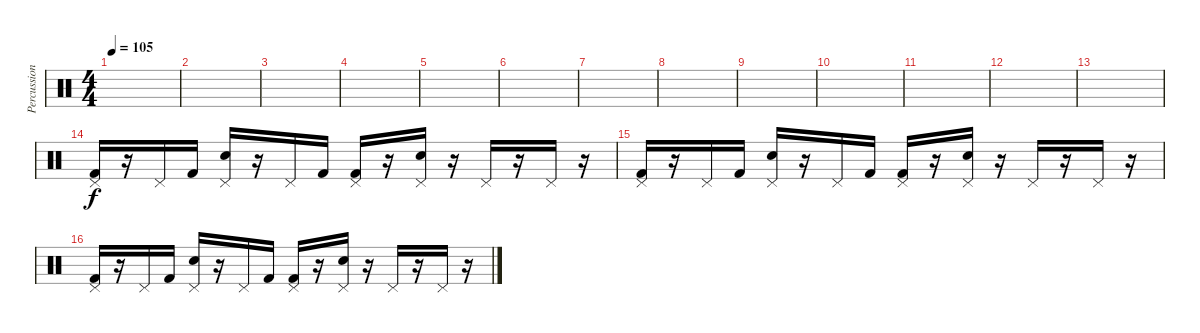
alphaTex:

\track ("Percussion" "Percussion") {instrument percussion}
\staff {score}
\articulation defaults
\ts (4 4)
\tempo 105
\clef neutral
\ks c
|
|
|
|
|
|
|
|
|
|
|
|
|
("Pedal Hi-Hat (hit)" "Kick (hit) 2").16{volume 11} r.16 "Pedal Hi-Hat (hit)".16 "Kick (hit) 2".16 ("Pedal Hi-Hat (hit)" "Electric Snare (hit)").16 r.16 "Pedal Hi-Hat (hit)".16 "Kick (hit) 2".16 ("Pedal Hi-Hat (hit)" "Kick (hit) 2").16 r.16 ("Pedal Hi-Hat (hit)" "Electric Snare (hit)").16 r.16 "Pedal Hi-Hat (hit)".16 r.16 "Pedal Hi-Hat (hit)".16 r.16 |
("Pedal Hi-Hat (hit)" "Kick (hit) 2").16 r.16 "Pedal Hi-Hat (hit)".16 "Kick (hit) 2".16 ("Pedal Hi-Hat (hit)" "Electric Snare (hit)").16 r.16 "Pedal Hi-Hat (hit)".16 "Kick (hit) 2".16 ("Pedal Hi-Hat (hit)" "Kick (hit) 2").16 r.16 ("Pedal Hi-Hat (hit)" "Electric Snare (hit)").16 r.16 "Pedal Hi-Hat (hit)".16 r.16 "Pedal Hi-Hat (hit)".16 r.16 |
("Pedal Hi-Hat (hit)" "Kick (hit) 2").16 r.16 "Pedal Hi-Hat (hit)".16 "Kick (hit) 2".16 ("Pedal Hi-Hat (hit)" "Electric Snare (hit)").16 r.16 "Pedal Hi-Hat (hit)".16 "Kick (hit) 2".16 ("Pedal Hi-Hat (hit)" "Kick (hit) 2").16 r.16 ("Pedal Hi-Hat (hit)" "Electric Snare (hit)").16 r.16 "Pedal Hi-Hat (hit)".16 r.16 "Pedal Hi-Hat (hit)".16 r.16
